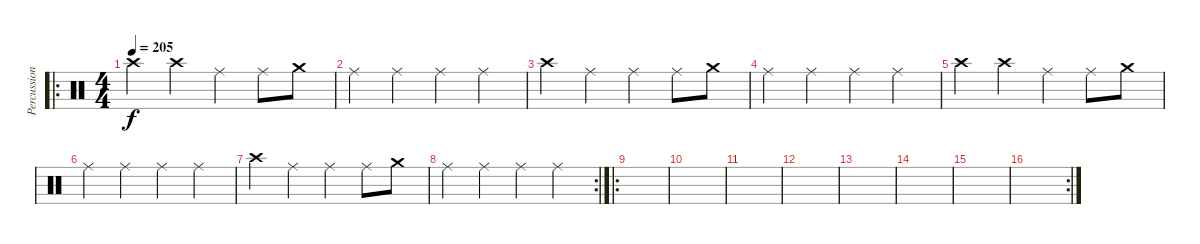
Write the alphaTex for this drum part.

\track ("Percussion" "Percussion") {instrument percussion}
\staff {score}
\articulation defaults
\ro
\ts (4 4)
\tempo 205
\clef neutral
\ks c "Crash high (hit)".4{dy f} "Crash high (hit)".4 "Ride (middle)".4 "Ride (middle)".8 "Crash medium (hit)".8
|
"Ride (middle)".4 "Ride (middle)".4 "Ride (middle)".4 "Ride (middle)".4 |
"Crash high (hit)".4 "Ride (middle)".4 "Ride (middle)".4 "Ride (middle)".8 "Crash medium (hit)".8 |
"Ride (middle)".4 "Ride (middle)".4 "Ride (middle)".4 "Ride (middle)".4 |
"Crash high (hit)".4 "Crash high (hit)".4 "Ride (middle)".4 "Ride (middle)".8 "Crash medium (hit)".8 |
"Ride (middle)".4 "Ride (middle)".4 "Ride (middle)".4 "Ride (middle)".4 |
"Crash high (hit)".4 "Ride (middle)".4 "Ride (middle)".4 "Ride (middle)".8 "Crash medium (hit)".8 |
\rc 2 "Ride (middle)".4 "Ride (middle)".4 "Ride (middle)".4 "Ride (middle)".4
|
\ro
|
|
|
|
|
|
|
\rc 2
